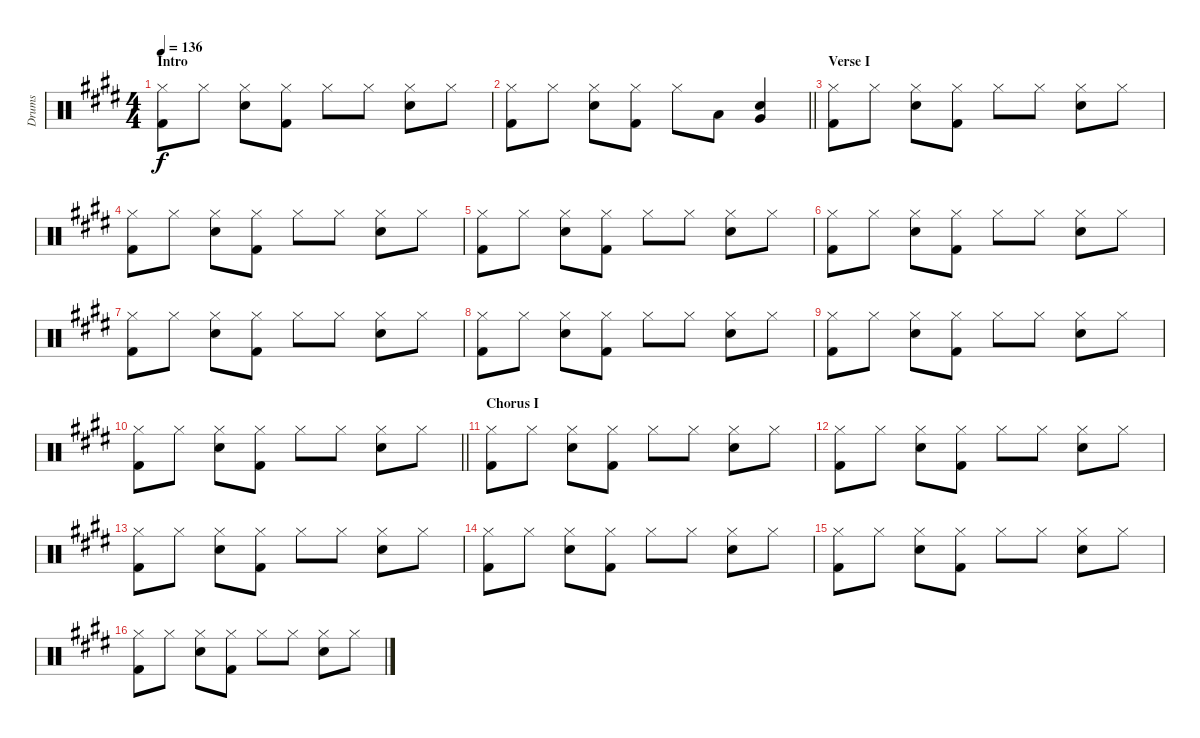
\track ("Drums" "Drums") {instrument percussion}
\staff {score}
\articulation defaults
\ts (4 4)
\section ("" "Intro")
\tempo 136
\clef neutral
\ks e
("Hi-Hat (closed)" "Kick (hit) 2").8{dy f} "Hi-Hat (closed)".8 ("Hi-Hat (closed)" "Snare (hit) 2").8 ("Hi-Hat (closed)" "Kick (hit) 2").8 "Hi-Hat (closed)".8 "Hi-Hat (closed)".8 ("Hi-Hat (closed)" "Snare (hit) 2").8 "Hi-Hat (closed)".8 |
\barLineRight lightlight
("Hi-Hat (closed)" "Kick (hit) 2").8 "Hi-Hat (closed)".8 ("Hi-Hat (closed)" "Snare (hit) 2").8 ("Hi-Hat (closed)" "Kick (hit) 2").8 "Hi-Hat (closed)".8 "Low Tom (hit)".8 ("Very Low Tom (hit)" "Snare (hit) 2").4 |
\section ("" "Verse I")
("Hi-Hat (closed)" "Kick (hit) 2").8 "Hi-Hat (closed)".8 ("Hi-Hat (closed)" "Snare (hit) 2").8 ("Hi-Hat (closed)" "Kick (hit) 2").8 "Hi-Hat (closed)".8 "Hi-Hat (closed)".8 ("Hi-Hat (closed)" "Snare (hit) 2").8 "Hi-Hat (closed)".8 |
("Hi-Hat (closed)" "Kick (hit) 2").8 "Hi-Hat (closed)".8 ("Hi-Hat (closed)" "Snare (hit) 2").8 ("Hi-Hat (closed)" "Kick (hit) 2").8 "Hi-Hat (closed)".8 "Hi-Hat (closed)".8 ("Hi-Hat (closed)" "Snare (hit) 2").8 "Hi-Hat (closed)".8 |
("Hi-Hat (closed)" "Kick (hit) 2").8 "Hi-Hat (closed)".8 ("Hi-Hat (closed)" "Snare (hit) 2").8 ("Hi-Hat (closed)" "Kick (hit) 2").8 "Hi-Hat (closed)".8 "Hi-Hat (closed)".8 ("Hi-Hat (closed)" "Snare (hit) 2").8 "Hi-Hat (closed)".8 |
("Hi-Hat (closed)" "Kick (hit) 2").8 "Hi-Hat (closed)".8 ("Hi-Hat (closed)" "Snare (hit) 2").8 ("Hi-Hat (closed)" "Kick (hit) 2").8 "Hi-Hat (closed)".8 "Hi-Hat (closed)".8 ("Hi-Hat (closed)" "Snare (hit) 2").8 "Hi-Hat (closed)".8 |
("Hi-Hat (closed)" "Kick (hit) 2").8 "Hi-Hat (closed)".8 ("Hi-Hat (closed)" "Snare (hit) 2").8 ("Hi-Hat (closed)" "Kick (hit) 2").8 "Hi-Hat (closed)".8 "Hi-Hat (closed)".8 ("Hi-Hat (closed)" "Snare (hit) 2").8 "Hi-Hat (closed)".8 |
("Hi-Hat (closed)" "Kick (hit) 2").8 "Hi-Hat (closed)".8 ("Hi-Hat (closed)" "Snare (hit) 2").8 ("Hi-Hat (closed)" "Kick (hit) 2").8 "Hi-Hat (closed)".8 "Hi-Hat (closed)".8 ("Hi-Hat (closed)" "Snare (hit) 2").8 "Hi-Hat (closed)".8 |
("Hi-Hat (closed)" "Kick (hit) 2").8 "Hi-Hat (closed)".8 ("Hi-Hat (closed)" "Snare (hit) 2").8 ("Hi-Hat (closed)" "Kick (hit) 2").8 "Hi-Hat (closed)".8 "Hi-Hat (closed)".8 ("Hi-Hat (closed)" "Snare (hit) 2").8 "Hi-Hat (closed)".8 |
\barLineRight lightlight
("Hi-Hat (closed)" "Kick (hit) 2").8 "Hi-Hat (closed)".8 ("Hi-Hat (closed)" "Snare (hit) 2").8 ("Hi-Hat (closed)" "Kick (hit) 2").8 "Hi-Hat (closed)".8 "Hi-Hat (closed)".8 ("Hi-Hat (closed)" "Snare (hit) 2").8 "Hi-Hat (closed)".8 |
\section ("" "Chorus I")
("Hi-Hat (closed)" "Kick (hit) 2").8 "Hi-Hat (closed)".8 ("Hi-Hat (closed)" "Snare (hit) 2").8 ("Hi-Hat (closed)" "Kick (hit) 2").8 "Hi-Hat (closed)".8 "Hi-Hat (closed)".8 ("Hi-Hat (closed)" "Snare (hit) 2").8 "Hi-Hat (closed)".8 |
("Hi-Hat (closed)" "Kick (hit) 2").8 "Hi-Hat (closed)".8 ("Hi-Hat (closed)" "Snare (hit) 2").8 ("Hi-Hat (closed)" "Kick (hit) 2").8 "Hi-Hat (closed)".8 "Hi-Hat (closed)".8 ("Hi-Hat (closed)" "Snare (hit) 2").8 "Hi-Hat (closed)".8 |
("Hi-Hat (closed)" "Kick (hit) 2").8 "Hi-Hat (closed)".8 ("Hi-Hat (closed)" "Snare (hit) 2").8 ("Hi-Hat (closed)" "Kick (hit) 2").8 "Hi-Hat (closed)".8 "Hi-Hat (closed)".8 ("Hi-Hat (closed)" "Snare (hit) 2").8 "Hi-Hat (closed)".8 |
("Hi-Hat (closed)" "Kick (hit) 2").8 "Hi-Hat (closed)".8 ("Hi-Hat (closed)" "Snare (hit) 2").8 ("Hi-Hat (closed)" "Kick (hit) 2").8 "Hi-Hat (closed)".8 "Hi-Hat (closed)".8 ("Hi-Hat (closed)" "Snare (hit) 2").8 "Hi-Hat (closed)".8 |
("Hi-Hat (closed)" "Kick (hit) 2").8 "Hi-Hat (closed)".8 ("Hi-Hat (closed)" "Snare (hit) 2").8 ("Hi-Hat (closed)" "Kick (hit) 2").8 "Hi-Hat (closed)".8 "Hi-Hat (closed)".8 ("Hi-Hat (closed)" "Snare (hit) 2").8 "Hi-Hat (closed)".8 |
("Hi-Hat (closed)" "Kick (hit) 2").8 "Hi-Hat (closed)".8 ("Hi-Hat (closed)" "Snare (hit) 2").8 ("Hi-Hat (closed)" "Kick (hit) 2").8 "Hi-Hat (closed)".8 "Hi-Hat (closed)".8 ("Hi-Hat (closed)" "Snare (hit) 2").8 "Hi-Hat (closed)".8
